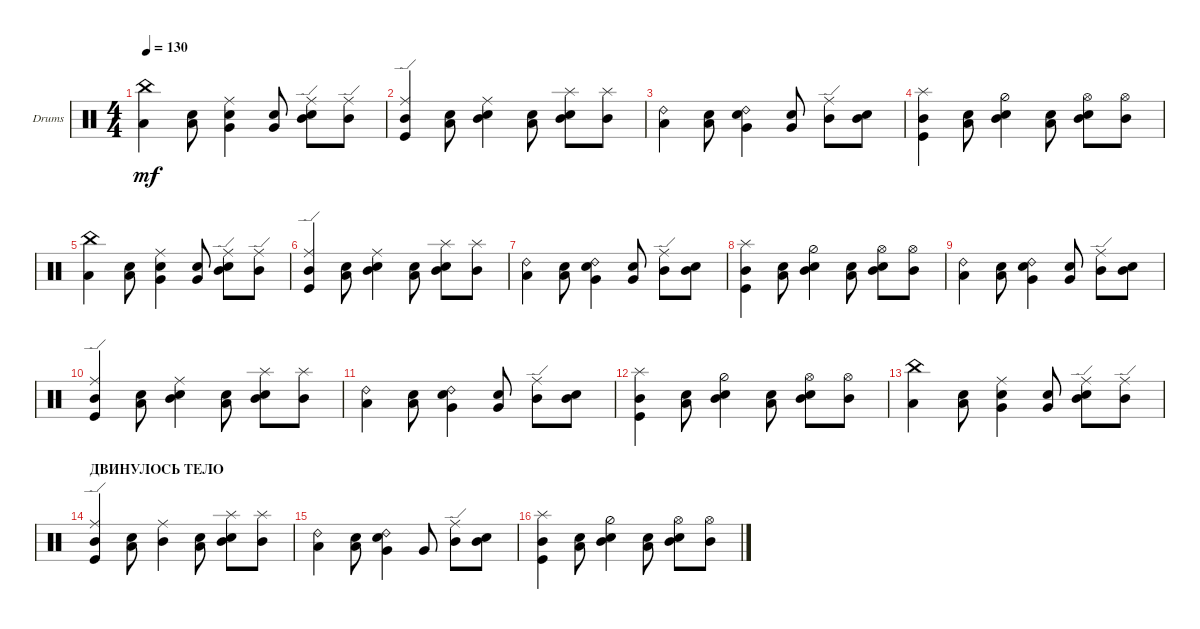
\defaultSystemsLayout 4
\bracketExtendMode groupsimilarinstruments
\firstSystemTrackNameOrientation horizontal
\otherSystemsTrackNameOrientation horizontal
\track ("Drumkit" "Drums") {instrument percussion}
\staff {score}
\articulation defaults
\ts (4 4)
\tempo 130
\clef neutral
\ks c
("Low Tom (hit)" "China (hit)").4{dy mf} ("Low Tom (hit)" "Snare (hit) 2").8 ("Very Low Tom (hit)" "Snare (hit) 2" "Ride (middle)").4 ("Very Low Tom (hit)" "Snare (hit) 2").8 ("Mid Tom (hit)" "Snare (hit) 2" "Ride (edge)").8 ("Mid Tom (hit)" "Ride (edge)").8 |
("Mid Tom (hit)" "Kick (hit)" "Ride (edge)").4 ("Low Tom (hit)" "Snare (hit) 2").8 ("Mid Tom (hit)" "Snare (hit) 2" "Ride (middle)").4 ("Low Tom (hit)" "Snare (hit) 2").8 ("Mid Tom (hit)" "Snare (hit) 2" "Splash (hit)").8 ("Mid Tom (hit)" "Splash (hit)").8 |
("Low Tom (hit)" "Ride (bell) 2").4 ("Low Tom (hit)" "Snare (hit) 2").8 ("Very Low Tom (hit)" "Snare (hit) 2" "Ride (bell) 2").4 ("Very Low Tom (hit)" "Snare (hit) 2").8 ("Mid Tom (hit)" "Ride (edge)").8 ("Mid Tom (hit)" "Snare (hit) 2").8 |
("Mid Tom (hit)" "Kick (hit)" "Splash (hit)").4 ("Low Tom (hit)" "Snare (hit) 2").8 ("Mid Tom (hit)" "Snare (hit) 2" "Hi-Hat (half)").4 ("Low Tom (hit)" "Snare (hit) 2").8 ("Mid Tom (hit)" "Snare (hit) 2" "Hi-Hat (open)").8 ("Mid Tom (hit)" "Hi-Hat (open)").8 |
("Low Tom (hit)" "China (hit)").4 ("Low Tom (hit)" "Snare (hit) 2").8 ("Very Low Tom (hit)" "Snare (hit) 2" "Ride (middle)").4 ("Very Low Tom (hit)" "Snare (hit) 2").8 ("Mid Tom (hit)" "Snare (hit) 2" "Ride (edge)").8 ("Mid Tom (hit)" "Ride (edge)").8 |
("Mid Tom (hit)" "Kick (hit)" "Ride (edge)").4 ("Low Tom (hit)" "Snare (hit) 2").8 ("Mid Tom (hit)" "Snare (hit) 2" "Ride (middle)").4 ("Low Tom (hit)" "Snare (hit) 2").8 ("Mid Tom (hit)" "Snare (hit) 2" "Splash (hit)").8 ("Mid Tom (hit)" "Splash (hit)").8 |
("Low Tom (hit)" "Ride (bell) 2").4 ("Low Tom (hit)" "Snare (hit) 2").8 ("Very Low Tom (hit)" "Snare (hit) 2" "Ride (bell) 2").4 ("Very Low Tom (hit)" "Snare (hit) 2").8 ("Mid Tom (hit)" "Ride (edge)").8 ("Mid Tom (hit)" "Snare (hit) 2").8 |
("Mid Tom (hit)" "Kick (hit)" "Splash (hit)").4 ("Low Tom (hit)" "Snare (hit) 2").8 ("Mid Tom (hit)" "Snare (hit) 2" "Hi-Hat (half)").4 ("Low Tom (hit)" "Snare (hit) 2").8 ("Mid Tom (hit)" "Snare (hit) 2" "Hi-Hat (open)").8 ("Mid Tom (hit)" "Hi-Hat (open)").8 |
("Low Tom (hit)" "Ride (bell) 2").4 ("Low Tom (hit)" "Snare (hit) 2").8 ("Very Low Tom (hit)" "Snare (hit) 2" "Ride (bell) 2").4 ("Very Low Tom (hit)" "Snare (hit) 2").8 ("Mid Tom (hit)" "Ride (edge)").8 ("Mid Tom (hit)" "Snare (hit) 2").8 |
("Mid Tom (hit)" "Kick (hit)" "Ride (edge)").4 ("Low Tom (hit)" "Snare (hit) 2").8 ("Mid Tom (hit)" "Snare (hit) 2" "Ride (middle)").4 ("Low Tom (hit)" "Snare (hit) 2").8 ("Mid Tom (hit)" "Snare (hit) 2" "Splash (hit)").8 ("Mid Tom (hit)" "Splash (hit)").8 |
("Low Tom (hit)" "Ride (bell) 2").4 ("Low Tom (hit)" "Snare (hit) 2").8 ("Very Low Tom (hit)" "Snare (hit) 2" "Ride (bell) 2").4 ("Very Low Tom (hit)" "Snare (hit) 2").8 ("Mid Tom (hit)" "Ride (edge)").8 ("Mid Tom (hit)" "Snare (hit) 2").8 |
("Mid Tom (hit)" "Kick (hit)" "Splash (hit)").4 ("Low Tom (hit)" "Snare (hit) 2").8 ("Mid Tom (hit)" "Snare (hit) 2" "Hi-Hat (half)").4 ("Low Tom (hit)" "Snare (hit) 2").8 ("Mid Tom (hit)" "Snare (hit) 2" "Hi-Hat (open)").8 ("Mid Tom (hit)" "Hi-Hat (open)").8 |
("Low Tom (hit)" "China (hit)").4 ("Low Tom (hit)" "Snare (hit) 2").8 ("Very Low Tom (hit)" "Snare (hit) 2" "Ride (middle)").4 ("Very Low Tom (hit)" "Snare (hit) 2").8 ("Mid Tom (hit)" "Snare (hit) 2" "Ride (edge)").8 ("Mid Tom (hit)" "Ride (edge)").8 |
\section ("" "ДВИНУЛОСЬ ТЕЛО")
("Mid Tom (hit)" "Kick (hit)" "Ride (edge)").4 ("Low Tom (hit)" "Snare (hit) 2").8 ("Mid Tom (hit)" "Ride (middle)").4 ("Low Tom (hit)" "Snare (hit) 2").8 ("Mid Tom (hit)" "Snare (hit) 2" "Splash (hit)").8 ("Mid Tom (hit)" "Splash (hit)").8 |
("Low Tom (hit)" "Ride (bell) 2").4 ("Low Tom (hit)" "Snare (hit) 2").8 ("Very Low Tom (hit)" "Snare (hit) 2" "Ride (bell) 2").4 "Very Low Tom (hit)".8 ("Mid Tom (hit)" "Ride (edge)").8 ("Mid Tom (hit)" "Snare (hit) 2").8 |
("Mid Tom (hit)" "Kick (hit)" "Splash (hit)").4 ("Low Tom (hit)" "Snare (hit) 2").8 ("Mid Tom (hit)" "Snare (hit) 2" "Hi-Hat (half)").4 ("Low Tom (hit)" "Snare (hit) 2").8 ("Mid Tom (hit)" "Snare (hit) 2" "Hi-Hat (open)").8 ("Mid Tom (hit)" "Hi-Hat (open)").8
